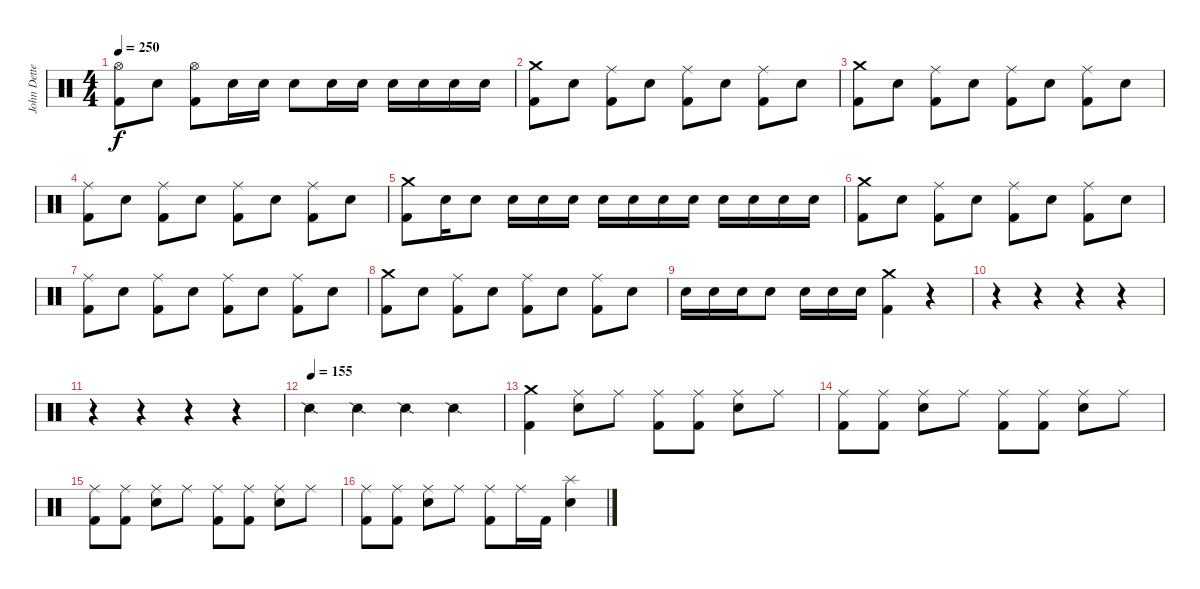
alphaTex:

\track ("John Dette" "John Dette") {instrument percussion}
\staff {score}
\articulation defaults
\ts (4 4)
\tempo 250
\clef neutral
\ks c
("Hi-Hat (open)" "Kick (hit) 2").8{dy f} "Snare (hit) 2".8 ("Hi-Hat (open)" "Kick (hit) 2").8 "Snare (hit) 2".16 "Snare (hit) 2".16 "Snare (hit) 2".8 "Snare (hit) 2".16 "Snare (hit) 2".16 "Snare (hit) 2".16 "Snare (hit) 2".16 "Snare (hit) 2".16 "Snare (hit) 2".16 |
("Crash medium (hit)" "Kick (hit) 2").8 "Snare (hit) 2".8 ("Ride (middle)" "Kick (hit) 2").8 "Snare (hit) 2".8 ("Ride (middle)" "Kick (hit) 2").8 "Snare (hit) 2".8 ("Ride (middle)" "Kick (hit) 2").8 "Snare (hit) 2".8 |
("Crash medium (hit)" "Kick (hit) 2").8 "Snare (hit) 2".8 ("Ride (middle)" "Kick (hit) 2").8 "Snare (hit) 2".8 ("Ride (middle)" "Kick (hit) 2").8 "Snare (hit) 2".8 ("Ride (middle)" "Kick (hit) 2").8 "Snare (hit) 2".8 |
("Ride (middle)" "Kick (hit) 2").8 "Snare (hit) 2".8 ("Ride (middle)" "Kick (hit) 2").8 "Snare (hit) 2".8 ("Ride (middle)" "Kick (hit) 2").8 "Snare (hit) 2".8 ("Ride (middle)" "Kick (hit) 2").8 "Snare (hit) 2".8 |
("Crash medium (hit)" "Kick (hit) 2").8 "Snare (hit) 2".16 "Snare (hit) 2".8 "Snare (hit) 2".16 "Snare (hit) 2".16 "Snare (hit) 2".16 "Snare (hit) 2".16 "Snare (hit) 2".16 "Snare (hit) 2".16 "Snare (hit) 2".16 "Snare (hit) 2".16 "Snare (hit) 2".16 "Snare (hit) 2".16 "Snare (hit) 2".16 |
("Crash medium (hit)" "Kick (hit) 2").8 "Snare (hit) 2".8 ("Ride (middle)" "Kick (hit) 2").8 "Snare (hit) 2".8 ("Ride (middle)" "Kick (hit) 2").8 "Snare (hit) 2".8 ("Ride (middle)" "Kick (hit) 2").8 "Snare (hit) 2".8 |
("Ride (middle)" "Kick (hit) 2").8 "Snare (hit) 2".8 ("Ride (middle)" "Kick (hit) 2").8 "Snare (hit) 2".8 ("Ride (middle)" "Kick (hit) 2").8 "Snare (hit) 2".8 ("Ride (middle)" "Kick (hit) 2").8 "Snare (hit) 2".8 |
("Crash medium (hit)" "Kick (hit) 2").8 "Snare (hit) 2".8 ("Ride (middle)" "Kick (hit) 2").8 "Snare (hit) 2".8 ("Ride (middle)" "Kick (hit) 2").8 "Snare (hit) 2".8 ("Ride (middle)" "Kick (hit) 2").8 "Snare (hit) 2".8 |
"Snare (hit) 2".16 "Snare (hit) 2".16 "Snare (hit) 2".16 "Snare (hit) 2".8 "Snare (hit) 2".16 "Snare (hit) 2".16 "Snare (hit) 2".16 ("Crash medium (hit)" "Kick (hit) 2").4 r.4 |
r.4 r.4 r.4 r.4 |
r.4 r.4 r.4 r.4 |
\tempo (155)
"Snare (side stick) 2".4 "Snare (side stick) 2".4 "Snare (side stick) 2".4 "Snare (side stick) 2".4 |
("Crash medium (hit)" "Kick (hit) 2").4 ("Ride (middle)" "Snare (hit) 2").8 "Ride (middle)".8 ("Ride (middle)" "Kick (hit) 2").8 ("Ride (middle)" "Kick (hit) 2").8 ("Ride (middle)" "Snare (hit) 2").8 "Ride (middle)".8 |
("Ride (middle)" "Kick (hit) 2").8 ("Ride (middle)" "Kick (hit) 2").8 ("Ride (middle)" "Snare (hit) 2").8 "Ride (middle)".8 ("Ride (middle)" "Kick (hit) 2").8 ("Ride (middle)" "Kick (hit) 2").8 ("Ride (middle)" "Snare (hit) 2").8 "Ride (middle)".8 |
("Ride (middle)" "Kick (hit) 2").8 ("Ride (middle)" "Kick (hit) 2").8 ("Ride (middle)" "Snare (hit) 2").8 "Ride (middle)".8 ("Ride (middle)" "Kick (hit) 2").8 ("Ride (middle)" "Kick (hit) 2").8 ("Ride (middle)" "Snare (hit) 2").8 "Ride (middle)".8 |
("Ride (middle)" "Kick (hit) 2").8 ("Ride (middle)" "Kick (hit) 2").8 ("Ride (middle)" "Snare (hit) 2").8 "Ride (middle)".8 ("Ride (middle)" "Kick (hit) 2").8 "Ride (middle)".16 "Kick (hit) 2".16 ("Splash (hit)" "Snare (hit) 2").4
